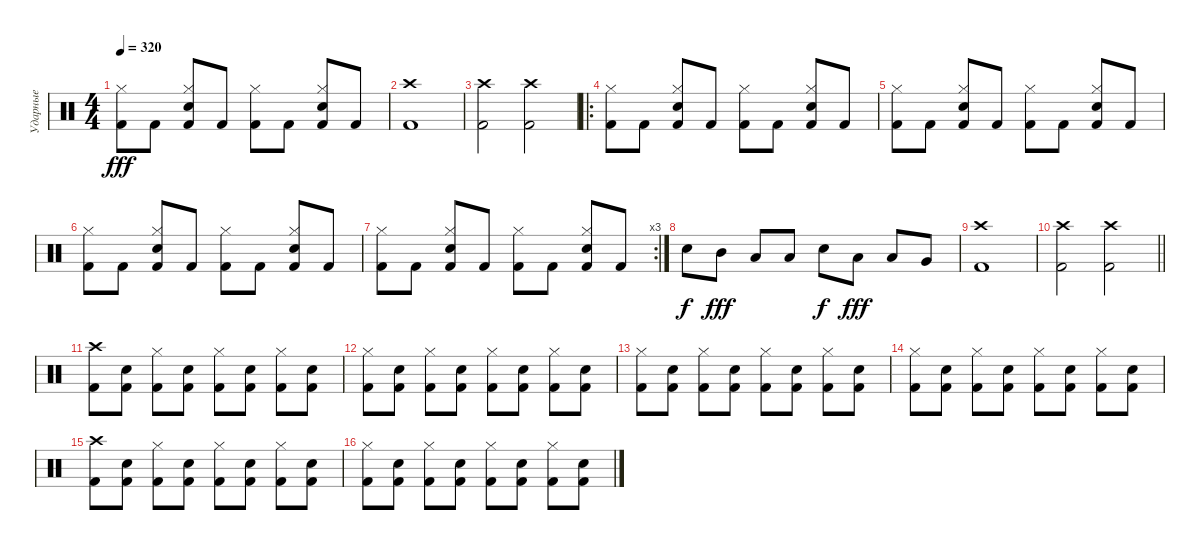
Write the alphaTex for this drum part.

\track ("Ударные" "Ударные") {instrument percussion}
\staff {score}
\articulation defaults
\ts (4 4)
\tempo 320
\clef neutral
\ks c
("Kick (hit) 2" "Hi-Hat (closed)").8{dy fff} "Kick (hit) 2".8 ("Kick (hit) 2" "Snare (hit) 2" "Hi-Hat (closed)").8 "Kick (hit) 2".8 ("Kick (hit) 2" "Hi-Hat (closed)").8 "Kick (hit) 2".8 ("Kick (hit) 2" "Snare (hit) 2" "Hi-Hat (closed)").8 "Kick (hit) 2".8 |
("Kick (hit) 2" "Crash high (hit)").1 |
("Kick (hit) 2" "Crash high (hit)").2 ("Kick (hit) 2" "Crash high (hit)").2 |
\ro
("Kick (hit) 2" "Hi-Hat (closed)").8 "Kick (hit) 2".8 ("Kick (hit) 2" "Snare (hit) 2" "Hi-Hat (closed)").8 "Kick (hit) 2".8 ("Kick (hit) 2" "Hi-Hat (closed)").8 "Kick (hit) 2".8 ("Kick (hit) 2" "Snare (hit) 2" "Hi-Hat (closed)").8 "Kick (hit) 2".8 |
("Kick (hit) 2" "Hi-Hat (closed)").8 "Kick (hit) 2".8 ("Kick (hit) 2" "Snare (hit) 2" "Hi-Hat (closed)").8 "Kick (hit) 2".8 ("Kick (hit) 2" "Hi-Hat (closed)").8 "Kick (hit) 2".8 ("Kick (hit) 2" "Snare (hit) 2" "Hi-Hat (closed)").8 "Kick (hit) 2".8 |
("Kick (hit) 2" "Hi-Hat (closed)").8 "Kick (hit) 2".8 ("Kick (hit) 2" "Snare (hit) 2" "Hi-Hat (closed)").8 "Kick (hit) 2".8 ("Kick (hit) 2" "Hi-Hat (closed)").8 "Kick (hit) 2".8 ("Kick (hit) 2" "Snare (hit) 2" "Hi-Hat (closed)").8 "Kick (hit) 2".8 |
\rc 3
("Kick (hit) 2" "Hi-Hat (closed)").8 "Kick (hit) 2".8 ("Kick (hit) 2" "Snare (hit) 2" "Hi-Hat (closed)").8 "Kick (hit) 2".8 ("Kick (hit) 2" "Hi-Hat (closed)").8 "Kick (hit) 2".8 ("Kick (hit) 2" "Snare (hit) 2" "Hi-Hat (closed)").8 "Kick (hit) 2".8 |
"Snare (hit) 2".8{dy f} "Mid Tom (hit)".8{dy fff} "Low Tom (hit)".8 "Low Tom (hit)".8 "Snare (hit) 2".8{dy f} "Low Tom (hit)".8{dy fff} "Low Tom (hit)".8 "Very Low Tom (hit)".8 |
("Kick (hit) 2" "Crash high (hit)").1 |
\barLineRight lightlight
("Kick (hit) 2" "Crash high (hit)").2 ("Kick (hit) 2" "Crash high (hit)").2 |
("Kick (hit) 2" "Crash high (hit)").8 ("Kick (hit) 2" "Snare (hit) 2").8 ("Kick (hit) 2" "Hi-Hat (closed)").8 ("Kick (hit) 2" "Snare (hit) 2").8 ("Kick (hit) 2" "Hi-Hat (closed)").8 ("Kick (hit) 2" "Snare (hit) 2").8 ("Kick (hit) 2" "Hi-Hat (closed)").8 ("Kick (hit) 2" "Snare (hit) 2").8 |
("Kick (hit) 2" "Hi-Hat (closed)").8 ("Kick (hit) 2" "Snare (hit) 2").8 ("Kick (hit) 2" "Hi-Hat (closed)").8 ("Kick (hit) 2" "Snare (hit) 2").8 ("Kick (hit) 2" "Hi-Hat (closed)").8 ("Kick (hit) 2" "Snare (hit) 2").8 ("Kick (hit) 2" "Hi-Hat (closed)").8 ("Kick (hit) 2" "Snare (hit) 2").8 |
("Kick (hit) 2" "Hi-Hat (closed)").8 ("Kick (hit) 2" "Snare (hit) 2").8 ("Kick (hit) 2" "Hi-Hat (closed)").8 ("Kick (hit) 2" "Snare (hit) 2").8 ("Kick (hit) 2" "Hi-Hat (closed)").8 ("Kick (hit) 2" "Snare (hit) 2").8 ("Kick (hit) 2" "Hi-Hat (closed)").8 ("Kick (hit) 2" "Snare (hit) 2").8 |
("Kick (hit) 2" "Hi-Hat (closed)").8 ("Kick (hit) 2" "Snare (hit) 2").8 ("Kick (hit) 2" "Hi-Hat (closed)").8 ("Kick (hit) 2" "Snare (hit) 2").8 ("Kick (hit) 2" "Hi-Hat (closed)").8 ("Kick (hit) 2" "Snare (hit) 2").8 ("Kick (hit) 2" "Hi-Hat (closed)").8 ("Kick (hit) 2" "Snare (hit) 2").8 |
("Kick (hit) 2" "Crash high (hit)").8 ("Kick (hit) 2" "Snare (hit) 2").8 ("Kick (hit) 2" "Hi-Hat (closed)").8 ("Kick (hit) 2" "Snare (hit) 2").8 ("Kick (hit) 2" "Hi-Hat (closed)").8 ("Kick (hit) 2" "Snare (hit) 2").8 ("Kick (hit) 2" "Hi-Hat (closed)").8 ("Kick (hit) 2" "Snare (hit) 2").8 |
("Kick (hit) 2" "Hi-Hat (closed)").8 ("Kick (hit) 2" "Snare (hit) 2").8 ("Kick (hit) 2" "Hi-Hat (closed)").8 ("Kick (hit) 2" "Snare (hit) 2").8 ("Kick (hit) 2" "Hi-Hat (closed)").8 ("Kick (hit) 2" "Snare (hit) 2").8 ("Kick (hit) 2" "Hi-Hat (closed)").8 ("Kick (hit) 2" "Snare (hit) 2").8
